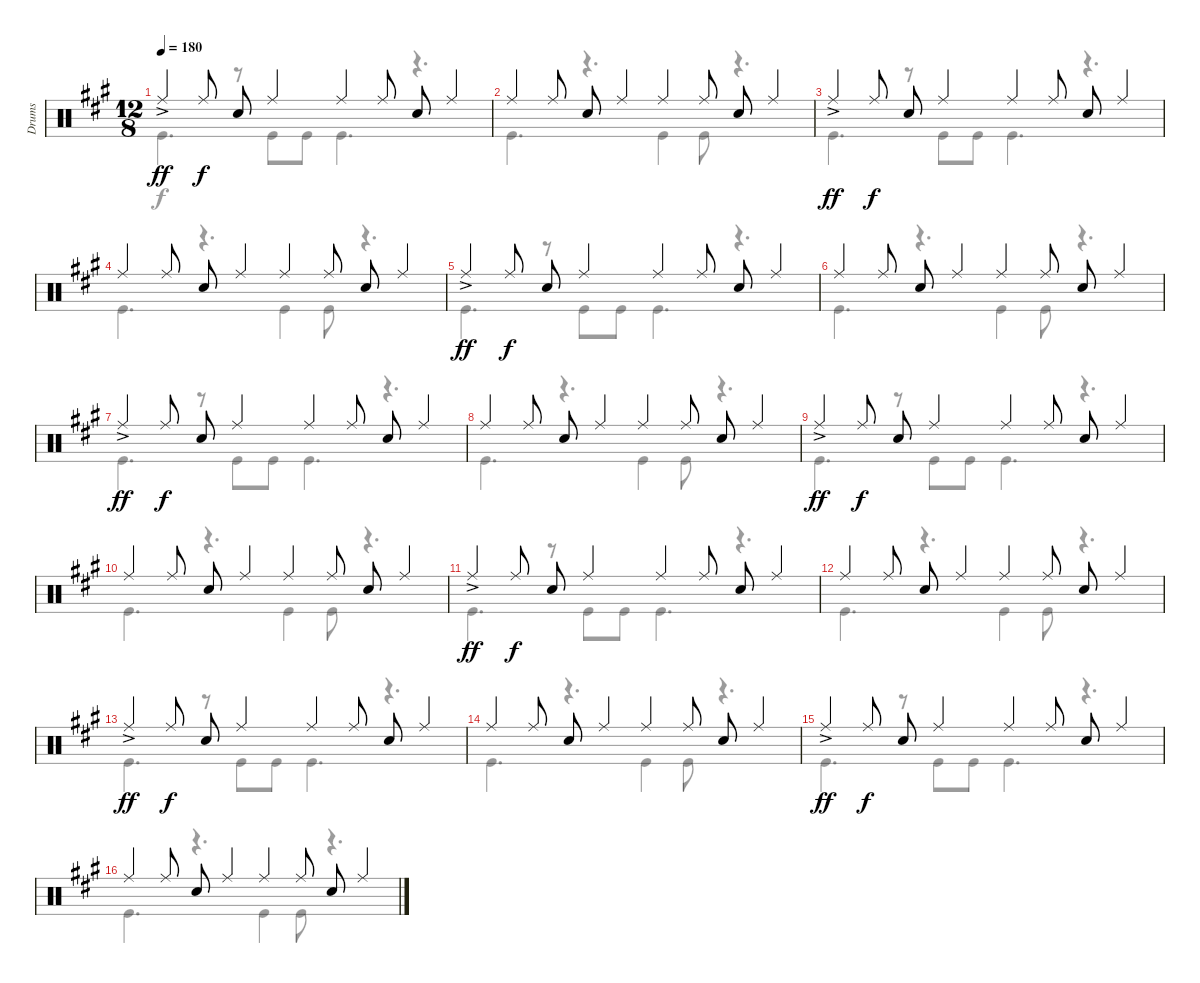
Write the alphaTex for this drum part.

\track ("Drums" "Drums") {instrument percussion}
\staff {score}
\articulation defaults
\voice
\ts (12 8)
\tempo 180
\clef neutral
\ks a "Ride (middle)"{ac}.4{dy ff} "Ride (middle)".8{dy f} "Snare (hit) 2".8 "Ride (middle)".4 "Ride (middle)".4 "Ride (middle)".8 "Snare (hit) 2".8 "Ride (middle)".4
|
"Ride (middle)".4 "Ride (middle)".8 "Snare (hit) 2".8 "Ride (middle)".4 "Ride (middle)".4 "Ride (middle)".8 "Snare (hit) 2".8 "Ride (middle)".4 |
"Ride (middle)"{ac}.4{dy ff} "Ride (middle)".8{dy f} "Snare (hit) 2".8 "Ride (middle)".4 "Ride (middle)".4 "Ride (middle)".8 "Snare (hit) 2".8 "Ride (middle)".4 |
"Ride (middle)".4 "Ride (middle)".8 "Snare (hit) 2".8 "Ride (middle)".4 "Ride (middle)".4 "Ride (middle)".8 "Snare (hit) 2".8 "Ride (middle)".4 |
"Ride (middle)"{ac}.4{dy ff} "Ride (middle)".8{dy f} "Snare (hit) 2".8 "Ride (middle)".4 "Ride (middle)".4 "Ride (middle)".8 "Snare (hit) 2".8 "Ride (middle)".4 |
"Ride (middle)".4 "Ride (middle)".8 "Snare (hit) 2".8 "Ride (middle)".4 "Ride (middle)".4 "Ride (middle)".8 "Snare (hit) 2".8 "Ride (middle)".4 |
"Ride (middle)"{ac}.4{dy ff} "Ride (middle)".8{dy f} "Snare (hit) 2".8 "Ride (middle)".4 "Ride (middle)".4 "Ride (middle)".8 "Snare (hit) 2".8 "Ride (middle)".4 |
"Ride (middle)".4 "Ride (middle)".8 "Snare (hit) 2".8 "Ride (middle)".4 "Ride (middle)".4 "Ride (middle)".8 "Snare (hit) 2".8 "Ride (middle)".4 |
"Ride (middle)"{ac}.4{dy ff} "Ride (middle)".8{dy f} "Snare (hit) 2".8 "Ride (middle)".4 "Ride (middle)".4 "Ride (middle)".8 "Snare (hit) 2".8 "Ride (middle)".4 |
"Ride (middle)".4 "Ride (middle)".8 "Snare (hit) 2".8 "Ride (middle)".4 "Ride (middle)".4 "Ride (middle)".8 "Snare (hit) 2".8 "Ride (middle)".4 |
"Ride (middle)"{ac}.4{dy ff} "Ride (middle)".8{dy f} "Snare (hit) 2".8 "Ride (middle)".4 "Ride (middle)".4 "Ride (middle)".8 "Snare (hit) 2".8 "Ride (middle)".4 |
"Ride (middle)".4 "Ride (middle)".8 "Snare (hit) 2".8 "Ride (middle)".4 "Ride (middle)".4 "Ride (middle)".8 "Snare (hit) 2".8 "Ride (middle)".4 |
"Ride (middle)"{ac}.4{dy ff} "Ride (middle)".8{dy f} "Snare (hit) 2".8 "Ride (middle)".4 "Ride (middle)".4 "Ride (middle)".8 "Snare (hit) 2".8 "Ride (middle)".4 |
"Ride (middle)".4 "Ride (middle)".8 "Snare (hit) 2".8 "Ride (middle)".4 "Ride (middle)".4 "Ride (middle)".8 "Snare (hit) 2".8 "Ride (middle)".4 |
"Ride (middle)"{ac}.4{dy ff} "Ride (middle)".8{dy f} "Snare (hit) 2".8 "Ride (middle)".4 "Ride (middle)".4 "Ride (middle)".8 "Snare (hit) 2".8 "Ride (middle)".4 |
"Ride (middle)".4 "Ride (middle)".8 "Snare (hit) 2".8 "Ride (middle)".4 "Ride (middle)".4 "Ride (middle)".8 "Snare (hit) 2".8 "Ride (middle)".4
\voice
\clef neutral
\ottava regular
\simile none
\ks a "Kick (hit)".4{d dy f}
r.8 "Kick (hit)".8 "Kick (hit)".8 "Kick (hit)".4{d} r.4{d} |
"Kick (hit)".4{d} r.4{d} "Kick (hit)".4 "Kick (hit)".8 r.4{d} |
"Kick (hit)".4{d} r.8 "Kick (hit)".8 "Kick (hit)".8 "Kick (hit)".4{d} r.4{d} |
"Kick (hit)".4{d} r.4{d} "Kick (hit)".4 "Kick (hit)".8 r.4{d} |
"Kick (hit)".4{d} r.8 "Kick (hit)".8 "Kick (hit)".8 "Kick (hit)".4{d} r.4{d} |
"Kick (hit)".4{d} r.4{d} "Kick (hit)".4 "Kick (hit)".8 r.4{d} |
"Kick (hit)".4{d} r.8 "Kick (hit)".8 "Kick (hit)".8 "Kick (hit)".4{d} r.4{d} |
"Kick (hit)".4{d} r.4{d} "Kick (hit)".4 "Kick (hit)".8 r.4{d} |
"Kick (hit)".4{d} r.8 "Kick (hit)".8 "Kick (hit)".8 "Kick (hit)".4{d} r.4{d} |
"Kick (hit)".4{d} r.4{d} "Kick (hit)".4 "Kick (hit)".8 r.4{d} |
"Kick (hit)".4{d} r.8 "Kick (hit)".8 "Kick (hit)".8 "Kick (hit)".4{d} r.4{d} |
"Kick (hit)".4{d} r.4{d} "Kick (hit)".4 "Kick (hit)".8 r.4{d} |
"Kick (hit)".4{d} r.8 "Kick (hit)".8 "Kick (hit)".8 "Kick (hit)".4{d} r.4{d} |
"Kick (hit)".4{d} r.4{d} "Kick (hit)".4 "Kick (hit)".8 r.4{d} |
"Kick (hit)".4{d} r.8 "Kick (hit)".8 "Kick (hit)".8 "Kick (hit)".4{d} r.4{d} |
"Kick (hit)".4{d} r.4{d} "Kick (hit)".4 "Kick (hit)".8 r.4{d}
